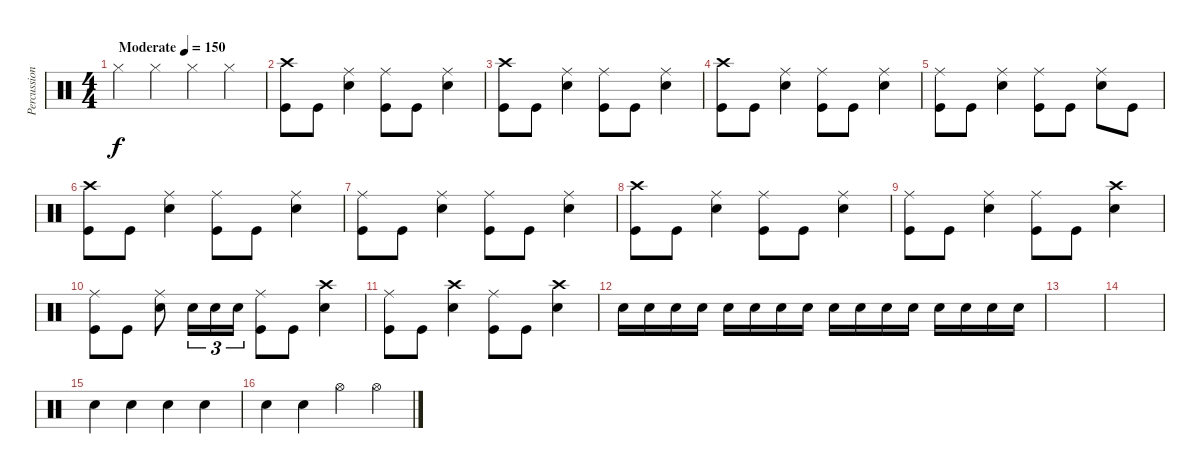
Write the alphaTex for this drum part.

\track ("Percussion" "Percussion") {instrument percussion}
\staff {score}
\articulation defaults
\ts (4 4)
\tempo (150 "Moderate")
\clef neutral
\ks c "Hi-Hat (closed)".4{dy f} "Hi-Hat (closed)".4 "Hi-Hat (closed)".4 "Hi-Hat (closed)".4
|
("Crash high (hit)" "Kick (hit)").8 "Kick (hit)".8 ("Ride (middle)" "Snare (hit) 2").4 ("Ride (middle)" "Kick (hit)").8 "Kick (hit)".8 ("Ride (middle)" "Snare (hit) 2").4 |
("Crash high (hit)" "Kick (hit)").8 "Kick (hit)".8 ("Ride (middle)" "Snare (hit) 2").4 ("Ride (middle)" "Kick (hit)").8 "Kick (hit)".8 ("Ride (middle)" "Snare (hit) 2").4 |
("Crash high (hit)" "Kick (hit)").8 "Kick (hit)".8 ("Ride (middle)" "Snare (hit) 2").4 ("Ride (middle)" "Kick (hit)").8 "Kick (hit)".8 ("Ride (middle)" "Snare (hit) 2").4 |
("Ride (middle)" "Kick (hit)").8 "Kick (hit)".8 ("Ride (middle)" "Snare (hit) 2").4 ("Ride (middle)" "Kick (hit)").8 "Kick (hit)".8 ("Ride (middle)" "Snare (hit) 2").8 "Kick (hit)".8 |
("Crash high (hit)" "Kick (hit)").8 "Kick (hit)".8 ("Ride (middle)" "Snare (hit) 2").4 ("Ride (middle)" "Kick (hit)").8 "Kick (hit)".8 ("Ride (middle)" "Snare (hit) 2").4 |
("Ride (middle)" "Kick (hit)").8 "Kick (hit)".8 ("Ride (middle)" "Snare (hit) 2").4 ("Ride (middle)" "Kick (hit)").8 "Kick (hit)".8 ("Ride (middle)" "Snare (hit) 2").4 |
("Crash high (hit)" "Kick (hit)").8 "Kick (hit)".8 ("Ride (middle)" "Snare (hit) 2").4 ("Ride (middle)" "Kick (hit)").8 "Kick (hit)".8 ("Ride (middle)" "Snare (hit) 2").4 |
("Ride (middle)" "Kick (hit)").8 "Kick (hit)".8 ("Ride (middle)" "Snare (hit) 2").4 ("Ride (middle)" "Kick (hit)").8 "Kick (hit)".8 ("Crash high (hit)" "Snare (hit) 2").4 |
("Ride (middle)" "Kick (hit)").8 "Kick (hit)".8 ("Ride (middle)" "Snare (hit) 2").8 "Snare (hit) 2".16{tu (3 2)} "Snare (hit) 2".16{tu (3 2)} "Snare (hit) 2".16{tu (3 2)} ("Ride (middle)" "Kick (hit)").8 "Kick (hit)".8 ("Crash high (hit)" "Snare (hit) 2").4 |
("Ride (middle)" "Kick (hit)").8 "Kick (hit)".8 ("Crash high (hit)" "Snare (hit) 2").4 ("Ride (middle)" "Kick (hit)").8 "Kick (hit)".8 ("Crash high (hit)" "Snare (hit) 2").4 |
"Snare (hit) 2".16 "Snare (hit) 2".16 "Snare (hit) 2".16 "Snare (hit) 2".16 "Snare (hit) 2".16 "Snare (hit) 2".16 "Snare (hit) 2".16 "Snare (hit) 2".16 "Snare (hit) 2".16 "Snare (hit) 2".16 "Snare (hit) 2".16 "Snare (hit) 2".16 "Snare (hit) 2".16 "Snare (hit) 2".16 "Snare (hit) 2".16 "Snare (hit) 2".16 |
|
|
"Hand Clap (hit)".4 "Hand Clap (hit)".4 "Hand Clap (hit)".4 "Hand Clap (hit)".4 |
"Hand Clap (hit)".4 "Hand Clap (hit)".4 "Hi-Hat (open)".4 "Hi-Hat (open)".4
